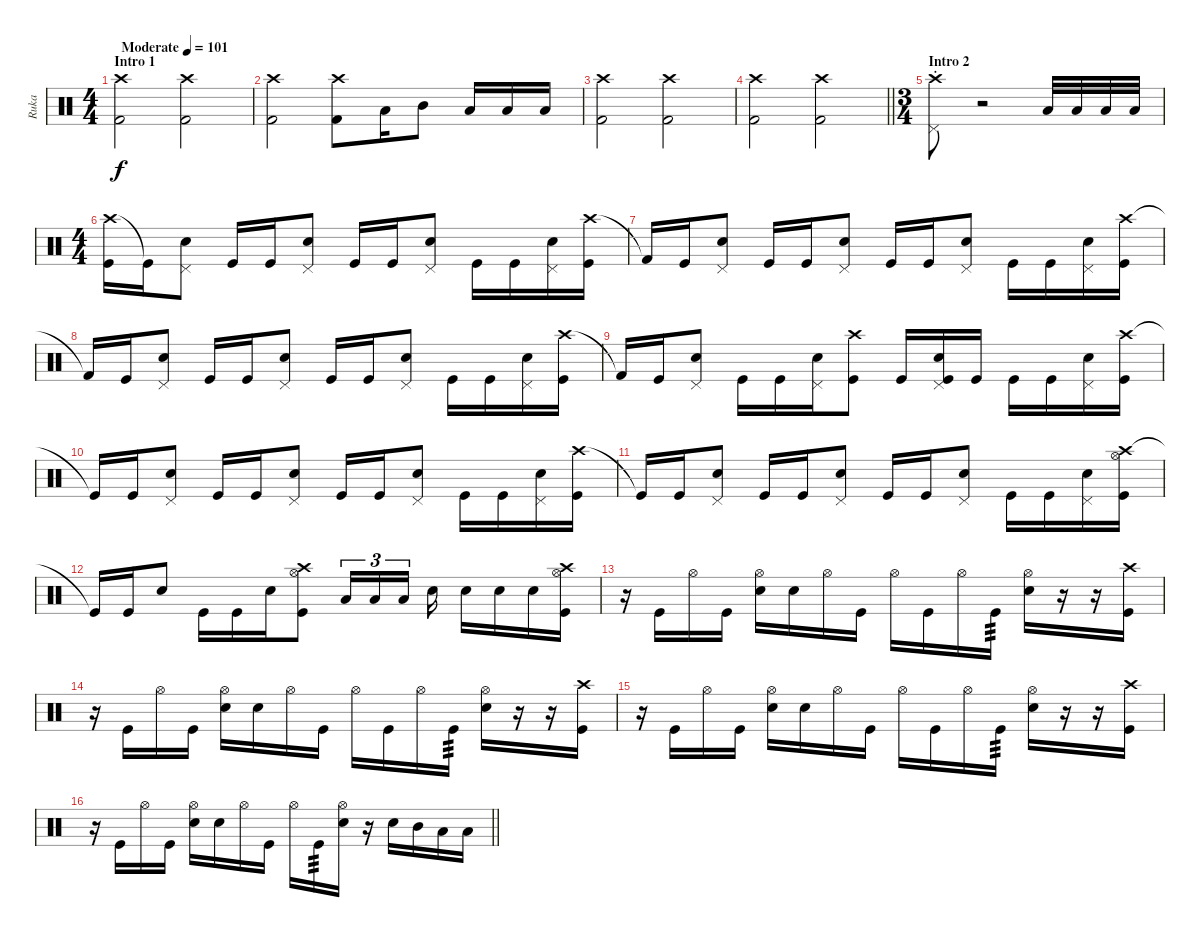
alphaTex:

\track ("Ruka" "Ruka") {instrument percussion}
\staff {score}
\articulation defaults
\ts (4 4)
\section ("" "Intro 1")
\tempo (101 "Moderate")
\clef neutral
\ks c
("Crash high (hit)" "Kick (hit) 2").2{dy f} ("Crash high (hit)" "Kick (hit) 2").2 |
("Crash high (hit)" "Kick (hit) 2").2 ("Crash high (hit)" "Kick (hit) 2").8 "Low Tom (hit)".16 "Mid Tom (hit)".8 "Low Tom (hit)".16 "Low Tom (hit)".16 "Low Floor Tom (hit)".16 |
("Crash high (hit)" "Kick (hit) 2").2 ("Crash high (hit)" "Kick (hit) 2").2 |
\barLineRight lightlight
("Crash high (hit)" "Kick (hit) 2").2 ("Crash high (hit)" "Kick (hit) 2").2 |
\ts (3 4)
\section ("" "Intro 2")
("Crash high (hit)"{st} "Pedal Hi-Hat (hit)"{st}).8 r.2 "Low Tom (hit)".32 "Low Tom (hit)".32 "Low Tom (hit)".32 "Low Tom (hit)".32 |
\ts (4 4)
("Crash high (hit)" "Kick (hit)").16 "Kick (hit)"{t}.16 ("Pedal Hi-Hat (hit)" "Snare (hit) 2").8 "Kick (hit)".16 "Kick (hit)".16 ("Pedal Hi-Hat (hit)" "Snare (hit) 2").8 "Kick (hit)".16 "Kick (hit)".16 ("Pedal Hi-Hat (hit)" "Snare (hit) 2").8 "Kick (hit)".16 "Kick (hit)".16 ("Pedal Hi-Hat (hit)" "Snare (hit) 2").16 ("Crash high (hit)" "Kick (hit)").16 |
"Kick (hit) 2"{t}.16 "Kick (hit)".16 ("Pedal Hi-Hat (hit)" "Snare (hit) 2").8 "Kick (hit)".16 "Kick (hit)".16 ("Pedal Hi-Hat (hit)" "Snare (hit) 2").8 "Kick (hit)".16 "Kick (hit)".16 ("Pedal Hi-Hat (hit)" "Snare (hit) 2").8 "Kick (hit)".16 "Kick (hit)".16 ("Pedal Hi-Hat (hit)" "Snare (hit) 2").16 ("Crash high (hit)" "Kick (hit)").16 |
"Kick (hit) 2"{t}.16 "Kick (hit)".16 ("Pedal Hi-Hat (hit)" "Snare (hit) 2").8 "Kick (hit)".16 "Kick (hit)".16 ("Pedal Hi-Hat (hit)" "Snare (hit) 2").8 "Kick (hit)".16 "Kick (hit)".16 ("Pedal Hi-Hat (hit)" "Snare (hit) 2").8 "Kick (hit)".16 "Kick (hit)".16 ("Pedal Hi-Hat (hit)" "Snare (hit) 2").16 ("Crash high (hit)" "Kick (hit)").16 |
"Kick (hit) 2"{t}.16 "Kick (hit)".16 ("Pedal Hi-Hat (hit)" "Snare (hit) 2").8 "Kick (hit)".16 "Kick (hit)".16 ("Pedal Hi-Hat (hit)" "Snare (hit) 2").16 ("Crash high (hit)" "Kick (hit)").8 "Kick (hit)".16 ("Pedal Hi-Hat (hit)" "Snare (hit) 2" "Kick (hit)").16 "Kick (hit)".16 "Kick (hit)".16 "Kick (hit)".16 ("Pedal Hi-Hat (hit)" "Snare (hit) 2").16 ("Crash high (hit)" "Kick (hit)").16 |
"Kick (hit)"{t}.16 "Kick (hit)".16 ("Pedal Hi-Hat (hit)" "Snare (hit) 2").8 "Kick (hit)".16 "Kick (hit)".16 ("Pedal Hi-Hat (hit)" "Snare (hit) 2").8 "Kick (hit)".16 "Kick (hit)".16 ("Pedal Hi-Hat (hit)" "Snare (hit) 2").8 "Kick (hit)".16 "Kick (hit)".16 ("Pedal Hi-Hat (hit)" "Snare (hit) 2").16 ("Crash high (hit)" "Kick (hit)").16 |
"Kick (hit)"{t}.16 "Kick (hit)".16 ("Pedal Hi-Hat (hit)" "Snare (hit) 2").8 "Kick (hit)".16 "Kick (hit)".16 ("Pedal Hi-Hat (hit)" "Snare (hit) 2").8 "Kick (hit)".16 "Kick (hit)".16 ("Pedal Hi-Hat (hit)" "Snare (hit) 2").8 "Kick (hit)".16 "Kick (hit)".16 ("Pedal Hi-Hat (hit)" "Snare (hit) 2").16 ("Crash high (hit)" "Hi-Hat (open)" "Kick (hit)").16 |
"Kick (hit)"{t}.16 "Kick (hit)".16 "Snare (hit) 2".8 "Kick (hit)".16 "Kick (hit)".16 "Snare (hit) 2".16 ("Crash high (hit)" "Hi-Hat (open)" "Kick (hit)").8 "Low Tom (hit)".16{tu (3 2)} "Low Tom (hit)".16{tu (3 2)} "Low Tom (hit)".16{tu (3 2) beam splitsecondary} "Snare (hit) 2".16 "Snare (hit) 2".16 "Snare (hit) 2".16 "Snare (hit) 2".16 ("Crash high (hit)" "Hi-Hat (open)" "Kick (hit)").16 |
r.16 "Kick (hit)".16 "Hi-Hat (open)".16 "Kick (hit)".16 ("Hi-Hat (open)" "Snare (hit) 2").16 "Snare (hit) 2".16 "Hi-Hat (open)".16 "Kick (hit)".16 "Hi-Hat (open)".16 "Kick (hit)".16 "Hi-Hat (open)".16 "Kick (hit)".16{tp 3} ("Hi-Hat (open)" "Snare (hit) 2").16 r.16 r.16 ("Crash high (hit)" "Kick (hit)").16 |
r.16 "Kick (hit)".16 "Hi-Hat (open)".16 "Kick (hit)".16 ("Hi-Hat (open)" "Snare (hit) 2").16 "Snare (hit) 2".16 "Hi-Hat (open)".16 "Kick (hit)".16 "Hi-Hat (open)".16 "Kick (hit)".16 "Hi-Hat (open)".16 "Kick (hit)".16{tp 3} ("Hi-Hat (open)" "Snare (hit) 2").16 r.16 r.16 ("Crash high (hit)" "Kick (hit)").16 |
r.16 "Kick (hit)".16 "Hi-Hat (open)".16 "Kick (hit)".16 ("Hi-Hat (open)" "Snare (hit) 2").16 "Snare (hit) 2".16 "Hi-Hat (open)".16 "Kick (hit)".16 "Hi-Hat (open)".16 "Kick (hit)".16 "Hi-Hat (open)".16 "Kick (hit)".16{tp 3} ("Hi-Hat (open)" "Snare (hit) 2").16 r.16 r.16 ("Crash high (hit)" "Kick (hit)").16 |
\barLineRight lightlight
r.16 "Kick (hit)".16 "Hi-Hat (open)".16 "Kick (hit)".16 ("Hi-Hat (open)" "Snare (hit) 2").16 "Snare (hit) 2".16 "Hi-Hat (open)".16 "Kick (hit)".16 "Hi-Hat (open)".16 "Kick (hit)".16{tp 3} ("Hi-Hat (open)" "Snare (hit) 2").16 r.16 "Snare (hit) 2".16 "Mid Tom (hit)".16 "Low Tom (hit)".16 "Low Floor Tom (hit)".16
